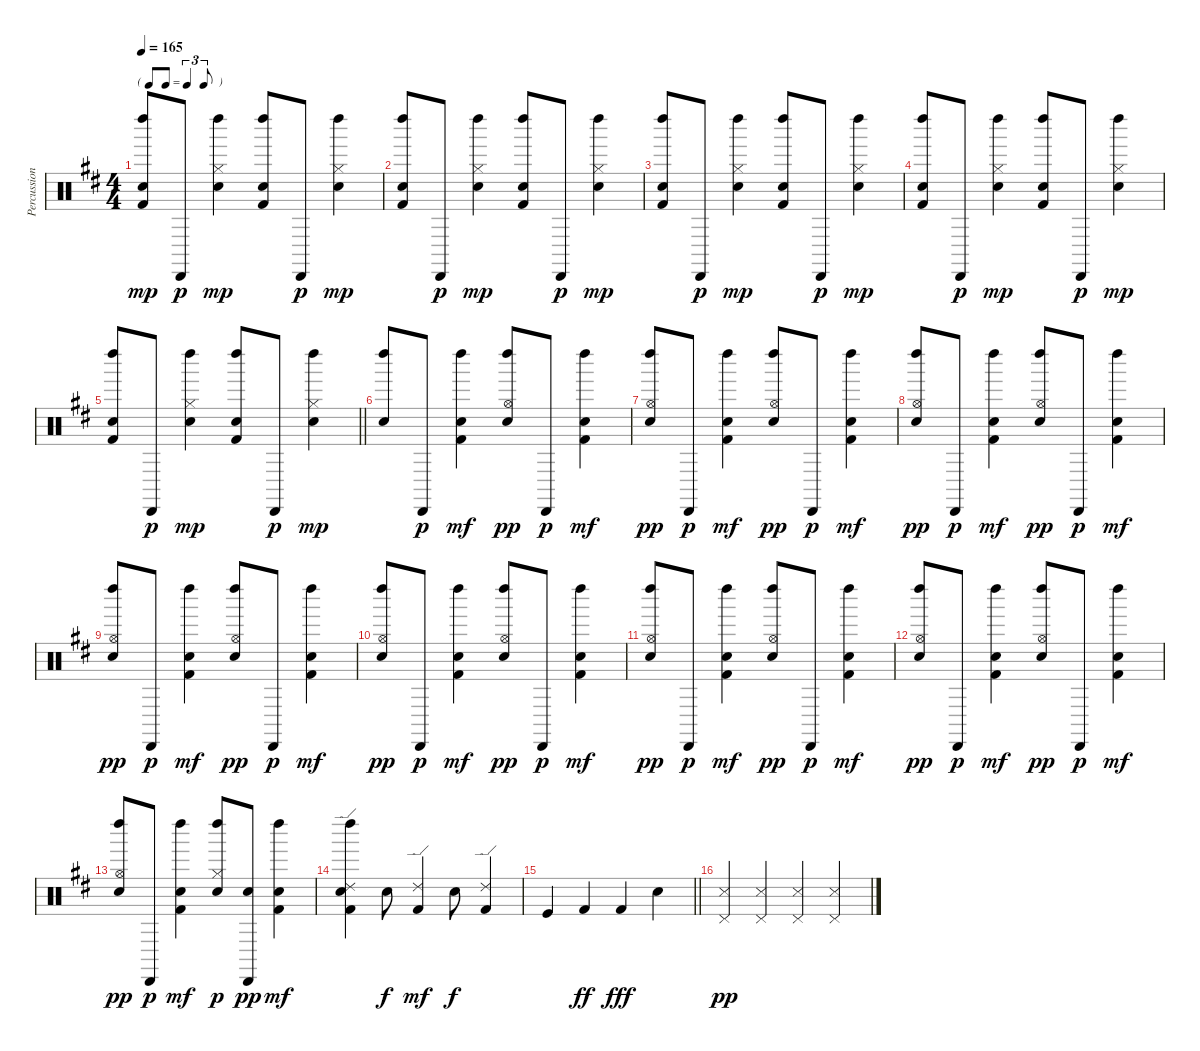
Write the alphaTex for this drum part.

\track ("Percussion" "Percussion") {instrument percussion}
\staff {score}
\articulation defaults
\ts (4 4)
\tf triplet8th
\tempo 165
\clef neutral
\ks d
("Left Maraca (hit)" "Snare (hit) 2" "Kick (hit) 2").8{dy mp} "Cabasa (hit)".8{dy p} ("Left Maraca (hit)" "Hi-Hat (closed)" "Snare (hit) 2").4{dy mp} ("Left Maraca (hit)" "Snare (hit) 2" "Kick (hit) 2").8 "Cabasa (hit)".8{dy p} ("Left Maraca (hit)" "Hi-Hat (closed)" "Snare (hit) 2").4{dy mp} |
("Left Maraca (hit)" "Snare (hit) 2" "Kick (hit) 2").8 "Cabasa (hit)".8{dy p} ("Left Maraca (hit)" "Hi-Hat (closed)" "Snare (hit) 2").4{dy mp} ("Left Maraca (hit)" "Snare (hit) 2" "Kick (hit) 2").8 "Cabasa (hit)".8{dy p} ("Left Maraca (hit)" "Hi-Hat (closed)" "Snare (hit) 2").4{dy mp} |
("Left Maraca (hit)" "Snare (hit) 2" "Kick (hit) 2").8 "Cabasa (hit)".8{dy p} ("Left Maraca (hit)" "Hi-Hat (closed)" "Snare (hit) 2").4{dy mp} ("Left Maraca (hit)" "Snare (hit) 2" "Kick (hit) 2").8 "Cabasa (hit)".8{dy p} ("Left Maraca (hit)" "Hi-Hat (closed)" "Snare (hit) 2").4{dy mp} |
("Left Maraca (hit)" "Snare (hit) 2" "Kick (hit) 2").8 "Cabasa (hit)".8{dy p} ("Left Maraca (hit)" "Hi-Hat (closed)" "Snare (hit) 2").4{dy mp} ("Left Maraca (hit)" "Snare (hit) 2" "Kick (hit) 2").8 "Cabasa (hit)".8{dy p} ("Left Maraca (hit)" "Hi-Hat (closed)" "Snare (hit) 2").4{dy mp} |
\barLineRight lightlight
("Left Maraca (hit)" "Snare (hit) 2" "Kick (hit) 2").8 "Cabasa (hit)".8{dy p} ("Left Maraca (hit)" "Hi-Hat (closed)" "Snare (hit) 2").4{dy mp} ("Left Maraca (hit)" "Snare (hit) 2" "Kick (hit) 2").8 "Cabasa (hit)".8{dy p} ("Left Maraca (hit)" "Hi-Hat (closed)" "Snare (hit) 2").4{dy mp} |
("Left Maraca (hit)" "Snare (hit) 2").8 "Cabasa (hit)".8{dy p} ("Snare (hit) 2" "Kick (hit) 2" "Left Maraca (hit)").4{dy mf} ("Snare (hit) 2" "Hi-Hat (open)" "Left Maraca (hit)").8{dy pp} "Cabasa (hit)".8{dy p} ("Kick (hit) 2" "Snare (hit) 2" "Left Maraca (hit)").4{dy mf} |
("Snare (hit) 2" "Hi-Hat (open)" "Left Maraca (hit)").8{dy pp} "Cabasa (hit)".8{dy p} ("Kick (hit) 2" "Snare (hit) 2" "Left Maraca (hit)").4{dy mf} ("Snare (hit) 2" "Hi-Hat (open)" "Left Maraca (hit)").8{dy pp} "Cabasa (hit)".8{dy p} ("Kick (hit) 2" "Snare (hit) 2" "Left Maraca (hit)").4{dy mf} |
("Snare (hit) 2" "Hi-Hat (open)" "Left Maraca (hit)").8{dy pp} "Cabasa (hit)".8{dy p} ("Kick (hit) 2" "Snare (hit) 2" "Left Maraca (hit)").4{dy mf} ("Snare (hit) 2" "Hi-Hat (open)" "Left Maraca (hit)").8{dy pp} "Cabasa (hit)".8{dy p} ("Kick (hit) 2" "Snare (hit) 2" "Left Maraca (hit)").4{dy mf} |
("Snare (hit) 2" "Hi-Hat (open)" "Left Maraca (hit)").8{dy pp} "Cabasa (hit)".8{dy p} ("Kick (hit) 2" "Snare (hit) 2" "Left Maraca (hit)").4{dy mf} ("Snare (hit) 2" "Hi-Hat (open)" "Left Maraca (hit)").8{dy pp} "Cabasa (hit)".8{dy p} ("Kick (hit) 2" "Snare (hit) 2" "Left Maraca (hit)").4{dy mf} |
("Snare (hit) 2" "Hi-Hat (open)" "Left Maraca (hit)").8{dy pp} "Cabasa (hit)".8{dy p} ("Kick (hit) 2" "Snare (hit) 2" "Left Maraca (hit)").4{dy mf} ("Snare (hit) 2" "Hi-Hat (open)" "Left Maraca (hit)").8{dy pp} "Cabasa (hit)".8{dy p} ("Kick (hit) 2" "Snare (hit) 2" "Left Maraca (hit)").4{dy mf} |
("Snare (hit) 2" "Hi-Hat (open)" "Left Maraca (hit)").8{dy pp} "Cabasa (hit)".8{dy p} ("Kick (hit) 2" "Snare (hit) 2" "Left Maraca (hit)").4{dy mf} ("Snare (hit) 2" "Hi-Hat (open)" "Left Maraca (hit)").8{dy pp} "Cabasa (hit)".8{dy p} ("Kick (hit) 2" "Snare (hit) 2" "Left Maraca (hit)").4{dy mf} |
("Snare (hit) 2" "Hi-Hat (open)" "Left Maraca (hit)").8{dy pp} "Cabasa (hit)".8{dy p} ("Kick (hit) 2" "Snare (hit) 2" "Left Maraca (hit)").4{dy mf} ("Snare (hit) 2" "Hi-Hat (open)" "Left Maraca (hit)").8{dy pp} "Cabasa (hit)".8{dy p} ("Kick (hit) 2" "Snare (hit) 2" "Left Maraca (hit)").4{dy mf} |
("Snare (hit) 2" "Hi-Hat (open)" "Left Maraca (hit)").8{dy pp} "Cabasa (hit)".8{dy p} ("Kick (hit) 2" "Snare (hit) 2" "Left Maraca (hit)").4{dy mf} ("Hi-Hat (closed)" "Snare (hit) 2" "Left Maraca (hit)").8{dy p} ("Snare (hit) 2" "Cabasa (hit)").8{dy pp} ("Snare (hit) 2" "Kick (hit) 2" "Left Maraca (hit)").4{dy mf} |
("Snare (hit) 2" "Left Maraca (hit)" "Kick (hit) 2" "Ride (edge) 2").4 "Snare (hit) 2".8{dy f} ("Ride (edge) 2" "Kick (hit) 2").4{dy mf} "Snare (hit) 2".8{dy f} ("Kick (hit) 2" "Ride (edge) 2").4 |
\barLineRight lightlight "Kick (hit)".4 "Kick (hit) 2".4{dy ff} "Kick (hit) 2".4{dy fff} "Snare (hit) 2".4
|
("Pedal Hi-Hat (hit)" "Snare (side stick) 3").4{dy pp} ("Pedal Hi-Hat (hit)" "Snare (side stick) 3").4 ("Pedal Hi-Hat (hit)" "Snare (side stick) 3").4 ("Pedal Hi-Hat (hit)" "Snare (side stick) 3").4
